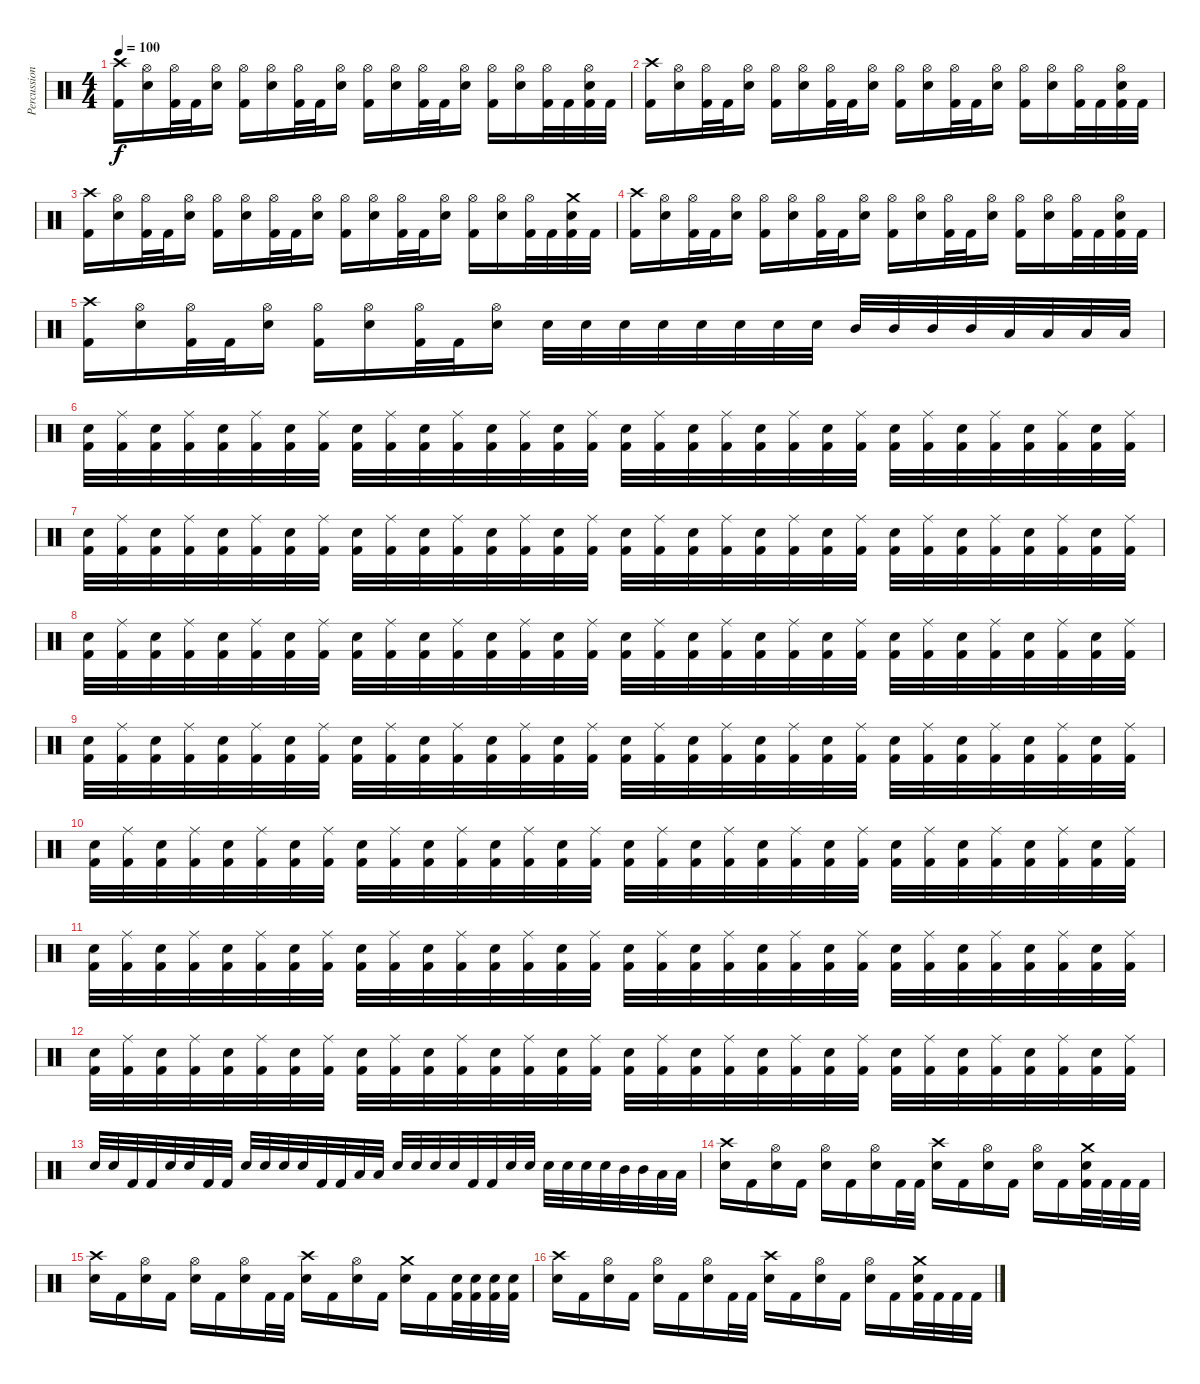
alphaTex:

\track ("Percussion" "Percussion") {instrument percussion}
\staff {score}
\articulation defaults
\ts (4 4)
\tempo 100
\clef neutral
\ks c
("Crash high (hit)" "Kick (hit) 2").16{dy f} ("Hi-Hat (open)" "Electric Snare (hit)").16 ("Hi-Hat (open)" "Kick (hit) 2").32 "Kick (hit) 2".32 ("Hi-Hat (open)" "Electric Snare (hit)").16 ("Hi-Hat (open)" "Kick (hit) 2").16 ("Hi-Hat (open)" "Electric Snare (hit)").16 ("Hi-Hat (open)" "Kick (hit) 2").32 "Kick (hit) 2".32 ("Hi-Hat (open)" "Electric Snare (hit)").16 ("Hi-Hat (open)" "Kick (hit) 2").16 ("Hi-Hat (open)" "Electric Snare (hit)").16 ("Hi-Hat (open)" "Kick (hit) 2").32 "Kick (hit) 2".32 ("Hi-Hat (open)" "Electric Snare (hit)").16 ("Hi-Hat (open)" "Kick (hit) 2").16 ("Hi-Hat (open)" "Electric Snare (hit)").16 ("Hi-Hat (open)" "Kick (hit) 2").32 "Kick (hit) 2".32 ("Hi-Hat (open)" "Electric Snare (hit)" "Kick (hit) 2").32 "Kick (hit) 2".32 |
("Crash high (hit)" "Kick (hit) 2").16 ("Hi-Hat (open)" "Electric Snare (hit)").16 ("Hi-Hat (open)" "Kick (hit) 2").32 "Kick (hit) 2".32 ("Hi-Hat (open)" "Electric Snare (hit)").16 ("Hi-Hat (open)" "Kick (hit) 2").16 ("Hi-Hat (open)" "Electric Snare (hit)").16 ("Hi-Hat (open)" "Kick (hit) 2").32 "Kick (hit) 2".32 ("Hi-Hat (open)" "Electric Snare (hit)").16 ("Hi-Hat (open)" "Kick (hit) 2").16 ("Hi-Hat (open)" "Electric Snare (hit)").16 ("Hi-Hat (open)" "Kick (hit) 2").32 "Kick (hit) 2".32 ("Hi-Hat (open)" "Electric Snare (hit)").16 ("Hi-Hat (open)" "Kick (hit) 2").16 ("Hi-Hat (open)" "Electric Snare (hit)").16 ("Hi-Hat (open)" "Kick (hit) 2").32 "Kick (hit) 2".32 ("Hi-Hat (open)" "Electric Snare (hit)" "Kick (hit) 2").32 "Kick (hit) 2".32 |
("Crash high (hit)" "Kick (hit) 2").16 ("Hi-Hat (open)" "Electric Snare (hit)").16 ("Hi-Hat (open)" "Kick (hit) 2").32 "Kick (hit) 2".32 ("Hi-Hat (open)" "Electric Snare (hit)").16 ("Hi-Hat (open)" "Kick (hit) 2").16 ("Hi-Hat (open)" "Electric Snare (hit)").16 ("Hi-Hat (open)" "Kick (hit) 2").32 "Kick (hit) 2".32 ("Hi-Hat (open)" "Electric Snare (hit)").16 ("Hi-Hat (open)" "Kick (hit) 2").16 ("Hi-Hat (open)" "Electric Snare (hit)").16 ("Hi-Hat (open)" "Kick (hit) 2").32 "Kick (hit) 2".32 ("Hi-Hat (open)" "Electric Snare (hit)").16 ("Hi-Hat (open)" "Kick (hit) 2").16 ("Hi-Hat (open)" "Electric Snare (hit)").16 ("Hi-Hat (open)" "Kick (hit) 2").32 "Kick (hit) 2".32 ("Crash medium (hit)" "Electric Snare (hit)" "Kick (hit) 2").32 "Kick (hit) 2".32 |
("Crash high (hit)" "Kick (hit) 2").16 ("Hi-Hat (open)" "Electric Snare (hit)").16 ("Hi-Hat (open)" "Kick (hit) 2").32 "Kick (hit) 2".32 ("Hi-Hat (open)" "Electric Snare (hit)").16 ("Hi-Hat (open)" "Kick (hit) 2").16 ("Hi-Hat (open)" "Electric Snare (hit)").16 ("Hi-Hat (open)" "Kick (hit) 2").32 "Kick (hit) 2".32 ("Hi-Hat (open)" "Electric Snare (hit)").16 ("Hi-Hat (open)" "Kick (hit) 2").16 ("Hi-Hat (open)" "Electric Snare (hit)").16 ("Hi-Hat (open)" "Kick (hit) 2").32 "Kick (hit) 2".32 ("Hi-Hat (open)" "Electric Snare (hit)").16 ("Hi-Hat (open)" "Kick (hit) 2").16 ("Hi-Hat (open)" "Electric Snare (hit)").16 ("Hi-Hat (open)" "Kick (hit) 2").32 "Kick (hit) 2".32 ("Hi-Hat (open)" "Electric Snare (hit)" "Kick (hit) 2").32 "Kick (hit) 2".32 |
("Crash high (hit)" "Kick (hit) 2").16 ("Hi-Hat (open)" "Electric Snare (hit)").16 ("Hi-Hat (open)" "Kick (hit) 2").32 "Kick (hit) 2".32 ("Hi-Hat (open)" "Electric Snare (hit)").16 ("Hi-Hat (open)" "Kick (hit) 2").16 ("Hi-Hat (open)" "Electric Snare (hit)").16 ("Hi-Hat (open)" "Kick (hit) 2").32 "Kick (hit) 2".32 ("Hi-Hat (open)" "Electric Snare (hit)").16 "Electric Snare (hit)".32 "Electric Snare (hit)".32 "Electric Snare (hit)".32 "Electric Snare (hit)".32 "Electric Snare (hit)".32 "Electric Snare (hit)".32 "Electric Snare (hit)".32 "Electric Snare (hit)".32 "Mid Tom (hit)".32 "Mid Tom (hit)".32 "Mid Tom (hit)".32 "Mid Tom (hit)".32 "Low Tom (hit)".32 "Low Tom (hit)".32 "Low Tom (hit)".32 "Low Tom (hit)".32 |
("Electric Snare (hit)" "Kick (hit) 2").32 ("Ride (middle)" "Kick (hit) 2").32 ("Electric Snare (hit)" "Kick (hit) 2").32 ("Ride (middle)" "Kick (hit) 2").32 ("Electric Snare (hit)" "Kick (hit) 2").32 ("Ride (middle)" "Kick (hit) 2").32 ("Electric Snare (hit)" "Kick (hit) 2").32 ("Ride (middle)" "Kick (hit) 2").32 ("Electric Snare (hit)" "Kick (hit) 2").32 ("Ride (middle)" "Kick (hit) 2").32 ("Electric Snare (hit)" "Kick (hit) 2").32 ("Ride (middle)" "Kick (hit) 2").32 ("Electric Snare (hit)" "Kick (hit) 2").32 ("Ride (middle)" "Kick (hit) 2").32 ("Electric Snare (hit)" "Kick (hit) 2").32 ("Ride (middle)" "Kick (hit) 2").32 ("Electric Snare (hit)" "Kick (hit) 2").32 ("Ride (middle)" "Kick (hit) 2").32 ("Electric Snare (hit)" "Kick (hit) 2").32 ("Ride (middle)" "Kick (hit) 2").32 ("Electric Snare (hit)" "Kick (hit) 2").32 ("Ride (middle)" "Kick (hit) 2").32 ("Electric Snare (hit)" "Kick (hit) 2").32 ("Ride (middle)" "Kick (hit) 2").32 ("Electric Snare (hit)" "Kick (hit) 2").32 ("Ride (middle)" "Kick (hit) 2").32 ("Electric Snare (hit)" "Kick (hit) 2").32 ("Ride (middle)" "Kick (hit) 2").32 ("Electric Snare (hit)" "Kick (hit) 2").32 ("Ride (middle)" "Kick (hit) 2").32 ("Electric Snare (hit)" "Kick (hit) 2").32 ("Ride (middle)" "Kick (hit) 2").32 |
("Electric Snare (hit)" "Kick (hit) 2").32 ("Ride (middle)" "Kick (hit) 2").32 ("Electric Snare (hit)" "Kick (hit) 2").32 ("Ride (middle)" "Kick (hit) 2").32 ("Electric Snare (hit)" "Kick (hit) 2").32 ("Ride (middle)" "Kick (hit) 2").32 ("Electric Snare (hit)" "Kick (hit) 2").32 ("Ride (middle)" "Kick (hit) 2").32 ("Electric Snare (hit)" "Kick (hit) 2").32 ("Ride (middle)" "Kick (hit) 2").32 ("Electric Snare (hit)" "Kick (hit) 2").32 ("Ride (middle)" "Kick (hit) 2").32 ("Electric Snare (hit)" "Kick (hit) 2").32 ("Ride (middle)" "Kick (hit) 2").32 ("Electric Snare (hit)" "Kick (hit) 2").32 ("Ride (middle)" "Kick (hit) 2").32 ("Electric Snare (hit)" "Kick (hit) 2").32 ("Ride (middle)" "Kick (hit) 2").32 ("Electric Snare (hit)" "Kick (hit) 2").32 ("Ride (middle)" "Kick (hit) 2").32 ("Electric Snare (hit)" "Kick (hit) 2").32 ("Ride (middle)" "Kick (hit) 2").32 ("Electric Snare (hit)" "Kick (hit) 2").32 ("Ride (middle)" "Kick (hit) 2").32 ("Electric Snare (hit)" "Kick (hit) 2").32 ("Ride (middle)" "Kick (hit) 2").32 ("Electric Snare (hit)" "Kick (hit) 2").32 ("Ride (middle)" "Kick (hit) 2").32 ("Electric Snare (hit)" "Kick (hit) 2").32 ("Ride (middle)" "Kick (hit) 2").32 ("Electric Snare (hit)" "Kick (hit) 2").32 ("Ride (middle)" "Kick (hit) 2").32 |
("Electric Snare (hit)" "Kick (hit) 2").32 ("Ride (middle)" "Kick (hit) 2").32 ("Electric Snare (hit)" "Kick (hit) 2").32 ("Ride (middle)" "Kick (hit) 2").32 ("Electric Snare (hit)" "Kick (hit) 2").32 ("Ride (middle)" "Kick (hit) 2").32 ("Electric Snare (hit)" "Kick (hit) 2").32 ("Ride (middle)" "Kick (hit) 2").32 ("Electric Snare (hit)" "Kick (hit) 2").32 ("Ride (middle)" "Kick (hit) 2").32 ("Electric Snare (hit)" "Kick (hit) 2").32 ("Ride (middle)" "Kick (hit) 2").32 ("Electric Snare (hit)" "Kick (hit) 2").32 ("Ride (middle)" "Kick (hit) 2").32 ("Electric Snare (hit)" "Kick (hit) 2").32 ("Ride (middle)" "Kick (hit) 2").32 ("Electric Snare (hit)" "Kick (hit) 2").32 ("Ride (middle)" "Kick (hit) 2").32 ("Electric Snare (hit)" "Kick (hit) 2").32 ("Ride (middle)" "Kick (hit) 2").32 ("Electric Snare (hit)" "Kick (hit) 2").32 ("Ride (middle)" "Kick (hit) 2").32 ("Electric Snare (hit)" "Kick (hit) 2").32 ("Ride (middle)" "Kick (hit) 2").32 ("Electric Snare (hit)" "Kick (hit) 2").32 ("Ride (middle)" "Kick (hit) 2").32 ("Electric Snare (hit)" "Kick (hit) 2").32 ("Ride (middle)" "Kick (hit) 2").32 ("Electric Snare (hit)" "Kick (hit) 2").32 ("Ride (middle)" "Kick (hit) 2").32 ("Electric Snare (hit)" "Kick (hit) 2").32 ("Ride (middle)" "Kick (hit) 2").32 |
("Electric Snare (hit)" "Kick (hit) 2").32 ("Ride (middle)" "Kick (hit) 2").32 ("Electric Snare (hit)" "Kick (hit) 2").32 ("Ride (middle)" "Kick (hit) 2").32 ("Electric Snare (hit)" "Kick (hit) 2").32 ("Ride (middle)" "Kick (hit) 2").32 ("Electric Snare (hit)" "Kick (hit) 2").32 ("Ride (middle)" "Kick (hit) 2").32 ("Electric Snare (hit)" "Kick (hit) 2").32 ("Ride (middle)" "Kick (hit) 2").32 ("Electric Snare (hit)" "Kick (hit) 2").32 ("Ride (middle)" "Kick (hit) 2").32 ("Electric Snare (hit)" "Kick (hit) 2").32 ("Ride (middle)" "Kick (hit) 2").32 ("Electric Snare (hit)" "Kick (hit) 2").32 ("Ride (middle)" "Kick (hit) 2").32 ("Electric Snare (hit)" "Kick (hit) 2").32 ("Ride (middle)" "Kick (hit) 2").32 ("Electric Snare (hit)" "Kick (hit) 2").32 ("Ride (middle)" "Kick (hit) 2").32 ("Electric Snare (hit)" "Kick (hit) 2").32 ("Ride (middle)" "Kick (hit) 2").32 ("Electric Snare (hit)" "Kick (hit) 2").32 ("Ride (middle)" "Kick (hit) 2").32 ("Electric Snare (hit)" "Kick (hit) 2").32 ("Ride (middle)" "Kick (hit) 2").32 ("Electric Snare (hit)" "Kick (hit) 2").32 ("Ride (middle)" "Kick (hit) 2").32 ("Electric Snare (hit)" "Kick (hit) 2").32 ("Ride (middle)" "Kick (hit) 2").32 ("Electric Snare (hit)" "Kick (hit) 2").32 ("Ride (middle)" "Kick (hit) 2").32 |
("Electric Snare (hit)" "Kick (hit) 2").32 ("Ride (middle)" "Kick (hit) 2").32 ("Electric Snare (hit)" "Kick (hit) 2").32 ("Ride (middle)" "Kick (hit) 2").32 ("Electric Snare (hit)" "Kick (hit) 2").32 ("Ride (middle)" "Kick (hit) 2").32 ("Electric Snare (hit)" "Kick (hit) 2").32 ("Ride (middle)" "Kick (hit) 2").32 ("Electric Snare (hit)" "Kick (hit) 2").32 ("Ride (middle)" "Kick (hit) 2").32 ("Electric Snare (hit)" "Kick (hit) 2").32 ("Ride (middle)" "Kick (hit) 2").32 ("Electric Snare (hit)" "Kick (hit) 2").32 ("Ride (middle)" "Kick (hit) 2").32 ("Electric Snare (hit)" "Kick (hit) 2").32 ("Ride (middle)" "Kick (hit) 2").32 ("Electric Snare (hit)" "Kick (hit) 2").32 ("Ride (middle)" "Kick (hit) 2").32 ("Electric Snare (hit)" "Kick (hit) 2").32 ("Ride (middle)" "Kick (hit) 2").32 ("Electric Snare (hit)" "Kick (hit) 2").32 ("Ride (middle)" "Kick (hit) 2").32 ("Electric Snare (hit)" "Kick (hit) 2").32 ("Ride (middle)" "Kick (hit) 2").32 ("Electric Snare (hit)" "Kick (hit) 2").32 ("Ride (middle)" "Kick (hit) 2").32 ("Electric Snare (hit)" "Kick (hit) 2").32 ("Ride (middle)" "Kick (hit) 2").32 ("Electric Snare (hit)" "Kick (hit) 2").32 ("Ride (middle)" "Kick (hit) 2").32 ("Electric Snare (hit)" "Kick (hit) 2").32 ("Ride (middle)" "Kick (hit) 2").32 |
("Electric Snare (hit)" "Kick (hit) 2").32 ("Ride (middle)" "Kick (hit) 2").32 ("Electric Snare (hit)" "Kick (hit) 2").32 ("Ride (middle)" "Kick (hit) 2").32 ("Electric Snare (hit)" "Kick (hit) 2").32 ("Ride (middle)" "Kick (hit) 2").32 ("Electric Snare (hit)" "Kick (hit) 2").32 ("Ride (middle)" "Kick (hit) 2").32 ("Electric Snare (hit)" "Kick (hit) 2").32 ("Ride (middle)" "Kick (hit) 2").32 ("Electric Snare (hit)" "Kick (hit) 2").32 ("Ride (middle)" "Kick (hit) 2").32 ("Electric Snare (hit)" "Kick (hit) 2").32 ("Ride (middle)" "Kick (hit) 2").32 ("Electric Snare (hit)" "Kick (hit) 2").32 ("Ride (middle)" "Kick (hit) 2").32 ("Electric Snare (hit)" "Kick (hit) 2").32 ("Ride (middle)" "Kick (hit) 2").32 ("Electric Snare (hit)" "Kick (hit) 2").32 ("Ride (middle)" "Kick (hit) 2").32 ("Electric Snare (hit)" "Kick (hit) 2").32 ("Ride (middle)" "Kick (hit) 2").32 ("Electric Snare (hit)" "Kick (hit) 2").32 ("Ride (middle)" "Kick (hit) 2").32 ("Electric Snare (hit)" "Kick (hit) 2").32 ("Ride (middle)" "Kick (hit) 2").32 ("Electric Snare (hit)" "Kick (hit) 2").32 ("Ride (middle)" "Kick (hit) 2").32 ("Electric Snare (hit)" "Kick (hit) 2").32 ("Ride (middle)" "Kick (hit) 2").32 ("Electric Snare (hit)" "Kick (hit) 2").32 ("Ride (middle)" "Kick (hit) 2").32 |
("Electric Snare (hit)" "Kick (hit) 2").32 ("Ride (middle)" "Kick (hit) 2").32 ("Electric Snare (hit)" "Kick (hit) 2").32 ("Ride (middle)" "Kick (hit) 2").32 ("Electric Snare (hit)" "Kick (hit) 2").32 ("Ride (middle)" "Kick (hit) 2").32 ("Electric Snare (hit)" "Kick (hit) 2").32 ("Ride (middle)" "Kick (hit) 2").32 ("Electric Snare (hit)" "Kick (hit) 2").32 ("Ride (middle)" "Kick (hit) 2").32 ("Electric Snare (hit)" "Kick (hit) 2").32 ("Ride (middle)" "Kick (hit) 2").32 ("Electric Snare (hit)" "Kick (hit) 2").32 ("Ride (middle)" "Kick (hit) 2").32 ("Electric Snare (hit)" "Kick (hit) 2").32 ("Ride (middle)" "Kick (hit) 2").32 ("Electric Snare (hit)" "Kick (hit) 2").32 ("Ride (middle)" "Kick (hit) 2").32 ("Electric Snare (hit)" "Kick (hit) 2").32 ("Ride (middle)" "Kick (hit) 2").32 ("Electric Snare (hit)" "Kick (hit) 2").32 ("Ride (middle)" "Kick (hit) 2").32 ("Electric Snare (hit)" "Kick (hit) 2").32 ("Ride (middle)" "Kick (hit) 2").32 ("Electric Snare (hit)" "Kick (hit) 2").32 ("Ride (middle)" "Kick (hit) 2").32 ("Electric Snare (hit)" "Kick (hit) 2").32 ("Ride (middle)" "Kick (hit) 2").32 ("Electric Snare (hit)" "Kick (hit) 2").32 ("Ride (middle)" "Kick (hit) 2").32 ("Electric Snare (hit)" "Kick (hit) 2").32 ("Ride (middle)" "Kick (hit) 2").32 |
"Electric Snare (hit)".32 "Electric Snare (hit)".32 "Kick (hit) 2".32 "Kick (hit) 2".32 "Electric Snare (hit)".32 "Electric Snare (hit)".32 "Kick (hit) 2".32 "Kick (hit) 2".32 "Electric Snare (hit)".32 "Electric Snare (hit)".32 "Electric Snare (hit)".32 "Electric Snare (hit)".32 "Kick (hit) 2".32 "Kick (hit) 2".32 "Low Tom (hit)".32 "Low Tom (hit)".32 "Electric Snare (hit)".32 "Electric Snare (hit)".32 "Electric Snare (hit)".32 "Electric Snare (hit)".32 "Kick (hit) 2".32 "Kick (hit) 2".32 "Electric Snare (hit)".32 "Electric Snare (hit)".32 "Electric Snare (hit)".32 "Electric Snare (hit)".32 "Electric Snare (hit)".32 "Electric Snare (hit)".32 "Mid Tom (hit)".32 "Mid Tom (hit)".32 "Low Tom (hit)".32 "Low Tom (hit)".32 |
("Crash high (hit)" "Electric Snare (hit)").16 "Kick (hit) 2".16 ("Hi-Hat (open)" "Electric Snare (hit)").16 "Kick (hit) 2".16 ("Hi-Hat (open)" "Electric Snare (hit)").16 "Kick (hit) 2".16 ("Hi-Hat (open)" "Electric Snare (hit)").16 "Kick (hit) 2".32 "Kick (hit) 2".32 ("Crash high (hit)" "Electric Snare (hit)").16 "Kick (hit) 2".16 ("Hi-Hat (open)" "Electric Snare (hit)").16 "Kick (hit) 2".16 ("Hi-Hat (open)" "Electric Snare (hit)").16 "Kick (hit) 2".16 ("Crash medium (hit)" "Electric Snare (hit)" "Kick (hit) 2").32 "Kick (hit) 2".32 "Kick (hit) 2".32 "Kick (hit) 2".32 |
("Crash high (hit)" "Electric Snare (hit)").16 "Kick (hit) 2".16 ("Hi-Hat (open)" "Electric Snare (hit)").16 "Kick (hit) 2".16 ("Hi-Hat (open)" "Electric Snare (hit)").16 "Kick (hit) 2".16 ("Hi-Hat (open)" "Electric Snare (hit)").16 "Kick (hit) 2".32 "Kick (hit) 2".32 ("Crash high (hit)" "Electric Snare (hit)").16 "Kick (hit) 2".16 ("Hi-Hat (open)" "Electric Snare (hit)").16 "Kick (hit) 2".16 ("Crash medium (hit)" "Electric Snare (hit)").16 "Kick (hit) 2".16 ("Electric Snare (hit)" "Kick (hit) 2").32 ("Electric Snare (hit)" "Kick (hit) 2").32 ("Electric Snare (hit)" "Kick (hit) 2").32 ("Electric Snare (hit)" "Kick (hit) 2").32 |
("Crash high (hit)" "Electric Snare (hit)").16 "Kick (hit) 2".16 ("Hi-Hat (open)" "Electric Snare (hit)").16 "Kick (hit) 2".16 ("Hi-Hat (open)" "Electric Snare (hit)").16 "Kick (hit) 2".16 ("Hi-Hat (open)" "Electric Snare (hit)").16 "Kick (hit) 2".32 "Kick (hit) 2".32 ("Crash high (hit)" "Electric Snare (hit)").16 "Kick (hit) 2".16 ("Hi-Hat (open)" "Electric Snare (hit)").16 "Kick (hit) 2".16 ("Hi-Hat (open)" "Electric Snare (hit)").16 "Kick (hit) 2".16 ("Crash medium (hit)" "Electric Snare (hit)" "Kick (hit) 2").32 "Kick (hit) 2".32 "Kick (hit) 2".32 "Kick (hit) 2".32
